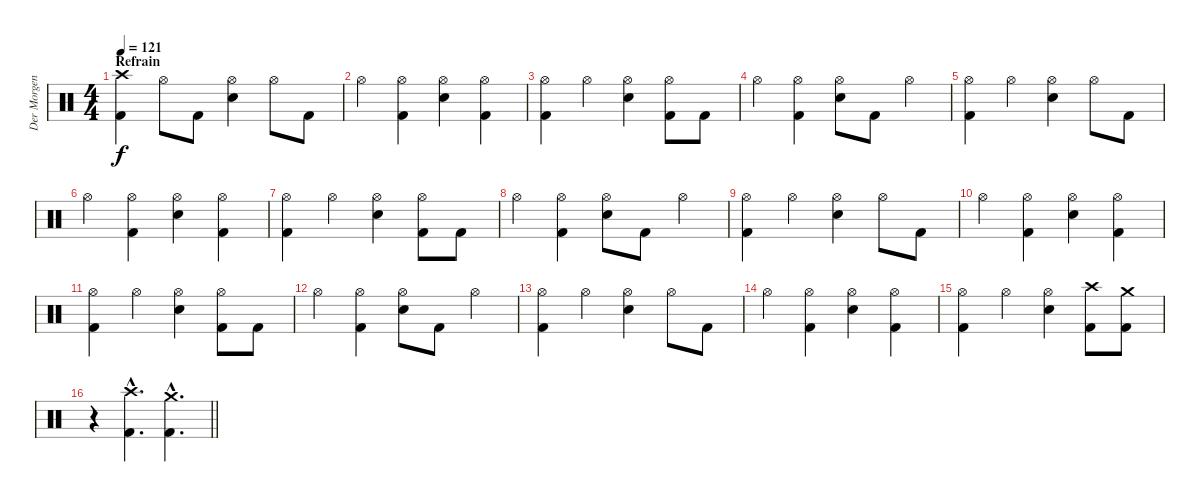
\track ("Der Morgenstern" "Der Morgen") {instrument percussion}
\staff {score}
\articulation defaults
\ts (4 4)
\section ("" "Refrain")
\tempo 121
\clef neutral
\ks c
("Crash high (hit)" "Kick (hit) 2").4{dy f} "Hi-Hat (open)".8 "Kick (hit) 2".8 ("Hi-Hat (open)" "Electric Snare (hit)").4 "Hi-Hat (open)".8 "Kick (hit) 2".8 |
"Hi-Hat (open)".4 ("Hi-Hat (open)" "Kick (hit) 2").4 ("Hi-Hat (open)" "Electric Snare (hit)").4 ("Hi-Hat (open)" "Kick (hit) 2").4 |
("Hi-Hat (open)" "Kick (hit) 2").4 "Hi-Hat (open)".4 ("Hi-Hat (open)" "Electric Snare (hit)").4 ("Hi-Hat (open)" "Kick (hit) 2").8 "Kick (hit) 2".8 |
"Hi-Hat (open)".4 ("Hi-Hat (open)" "Kick (hit) 2").4 ("Hi-Hat (open)" "Electric Snare (hit)").8 "Kick (hit) 2".8 "Hi-Hat (open)".4 |
("Hi-Hat (open)" "Kick (hit) 2").4 "Hi-Hat (open)".4 ("Hi-Hat (open)" "Electric Snare (hit)").4 "Hi-Hat (open)".8 "Kick (hit) 2".8 |
"Hi-Hat (open)".4 ("Hi-Hat (open)" "Kick (hit) 2").4 ("Hi-Hat (open)" "Electric Snare (hit)").4 ("Hi-Hat (open)" "Kick (hit) 2").4 |
("Hi-Hat (open)" "Kick (hit) 2").4 "Hi-Hat (open)".4 ("Hi-Hat (open)" "Electric Snare (hit)").4 ("Hi-Hat (open)" "Kick (hit) 2").8 "Kick (hit) 2".8 |
"Hi-Hat (open)".4 ("Hi-Hat (open)" "Kick (hit) 2").4 ("Hi-Hat (open)" "Electric Snare (hit)").8 "Kick (hit) 2".8 "Hi-Hat (open)".4 |
("Hi-Hat (open)" "Kick (hit) 2").4 "Hi-Hat (open)".4 ("Hi-Hat (open)" "Electric Snare (hit)").4 "Hi-Hat (open)".8 "Kick (hit) 2".8 |
"Hi-Hat (open)".4 ("Hi-Hat (open)" "Kick (hit) 2").4 ("Hi-Hat (open)" "Electric Snare (hit)").4 ("Hi-Hat (open)" "Kick (hit) 2").4 |
("Hi-Hat (open)" "Kick (hit) 2").4 "Hi-Hat (open)".4 ("Hi-Hat (open)" "Electric Snare (hit)").4 ("Hi-Hat (open)" "Kick (hit) 2").8 "Kick (hit) 2".8 |
"Hi-Hat (open)".4 ("Hi-Hat (open)" "Kick (hit) 2").4 ("Hi-Hat (open)" "Electric Snare (hit)").8 "Kick (hit) 2".8 "Hi-Hat (open)".4 |
("Hi-Hat (open)" "Kick (hit) 2").4 "Hi-Hat (open)".4 ("Hi-Hat (open)" "Electric Snare (hit)").4 "Hi-Hat (open)".8 "Kick (hit) 2".8 |
"Hi-Hat (open)".4 ("Hi-Hat (open)" "Kick (hit) 2").4 ("Hi-Hat (open)" "Electric Snare (hit)").4 ("Hi-Hat (open)" "Kick (hit) 2").4 |
("Hi-Hat (open)" "Kick (hit) 2").4 "Hi-Hat (open)".4 ("Hi-Hat (open)" "Electric Snare (hit)").4 ("Crash high (hit)" "Kick (hit) 2").8 ("Crash medium (hit)" "Kick (hit) 2").8 |
\barLineRight lightlight
r.4 ("Crash high (hit)"{hac} "Kick (hit) 2"{hac}).4{d} ("Crash medium (hit)"{hac} "Kick (hit) 2"{hac}).4{d}
